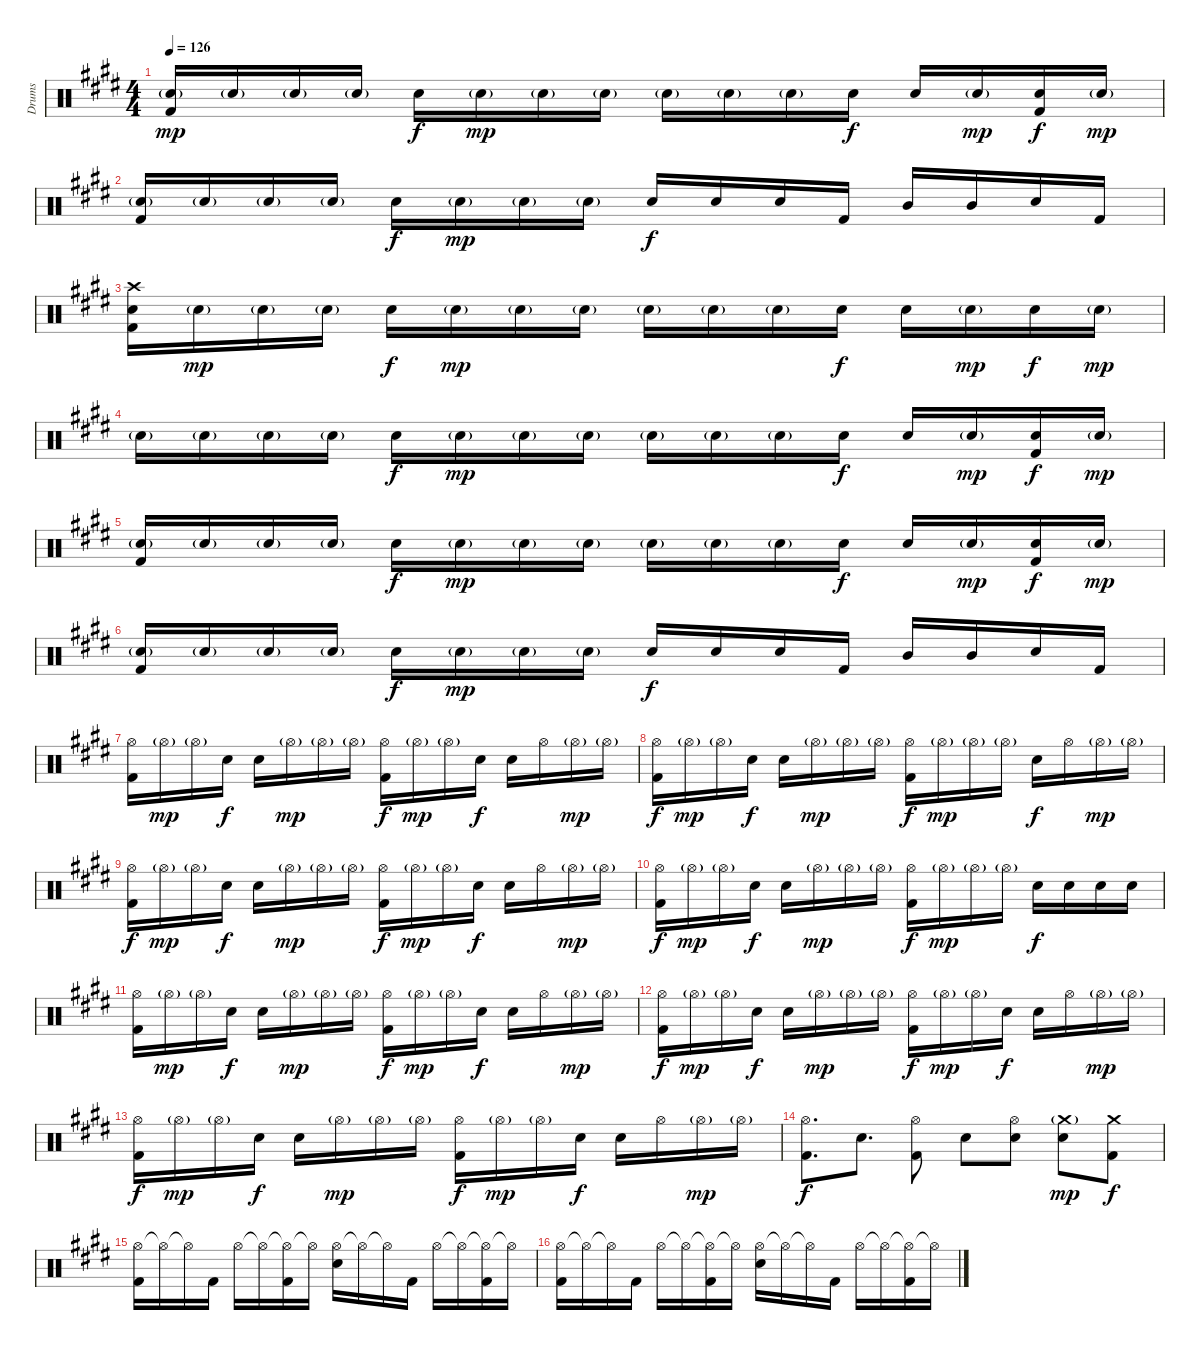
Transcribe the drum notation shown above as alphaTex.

\track ("Drums" "Drums") {instrument percussion}
\staff {score}
\articulation defaults
\ts (4 4)
\tempo 126
\clef neutral
\ks e
("Snare (hit) 2"{g} "Kick (hit) 2").16{dy mp} "Snare (hit) 2"{g}.16 "Snare (hit) 2"{g}.16 "Snare (hit) 2"{g}.16 "Snare (hit) 2".16{dy f} "Snare (hit) 2"{g}.16{dy mp} "Snare (hit) 2"{g}.16 "Snare (hit) 2"{g}.16 "Snare (hit) 2"{g}.16 "Snare (hit) 2"{g}.16 "Snare (hit) 2"{g}.16 "Snare (hit) 2".16{dy f} "Snare (hit) 2".16 "Snare (hit) 2"{g}.16{dy mp} ("Snare (hit) 2" "Kick (hit) 2").16{dy f} "Snare (hit) 2"{g}.16{dy mp} |
("Snare (hit) 2"{g} "Kick (hit) 2").16 "Snare (hit) 2"{g}.16 "Snare (hit) 2"{g}.16 "Snare (hit) 2"{g}.16 "Snare (hit) 2".16{dy f} "Snare (hit) 2"{g}.16{dy mp} "Snare (hit) 2"{g}.16 "Snare (hit) 2"{g}.16 "Snare (hit) 2".16{dy f} "Snare (hit) 2".16 "Snare (hit) 2".16 "Kick (hit) 2".16 "Mid Tom (hit)".16 "Mid Tom (hit)".16 "Snare (hit) 2".16 "Kick (hit) 2".16 |
("Crash high (hit)" "Snare (hit) 2" "Kick (hit) 2").16 "Snare (hit) 2"{g}.16{dy mp} "Snare (hit) 2"{g}.16 "Snare (hit) 2"{g}.16 "Snare (hit) 2".16{dy f} "Snare (hit) 2"{g}.16{dy mp} "Snare (hit) 2"{g}.16 "Snare (hit) 2"{g}.16 "Snare (hit) 2"{g}.16 "Snare (hit) 2"{g}.16 "Snare (hit) 2"{g}.16 "Snare (hit) 2".16{dy f} "Snare (hit) 2".16 "Snare (hit) 2"{g}.16{dy mp} "Snare (hit) 2".16{dy f} "Snare (hit) 2"{g}.16{dy mp} |
"Snare (hit) 2"{g}.16 "Snare (hit) 2"{g}.16 "Snare (hit) 2"{g}.16 "Snare (hit) 2"{g}.16 "Snare (hit) 2".16{dy f} "Snare (hit) 2"{g}.16{dy mp} "Snare (hit) 2"{g}.16 "Snare (hit) 2"{g}.16 "Snare (hit) 2"{g}.16 "Snare (hit) 2"{g}.16 "Snare (hit) 2"{g}.16 "Snare (hit) 2".16{dy f} "Snare (hit) 2".16 "Snare (hit) 2"{g}.16{dy mp} ("Snare (hit) 2" "Kick (hit) 2").16{dy f} "Snare (hit) 2"{g}.16{dy mp} |
("Snare (hit) 2"{g} "Kick (hit) 2").16 "Snare (hit) 2"{g}.16 "Snare (hit) 2"{g}.16 "Snare (hit) 2"{g}.16 "Snare (hit) 2".16{dy f} "Snare (hit) 2"{g}.16{dy mp} "Snare (hit) 2"{g}.16 "Snare (hit) 2"{g}.16 "Snare (hit) 2"{g}.16 "Snare (hit) 2"{g}.16 "Snare (hit) 2"{g}.16 "Snare (hit) 2".16{dy f} "Snare (hit) 2".16 "Snare (hit) 2"{g}.16{dy mp} ("Snare (hit) 2" "Kick (hit) 2").16{dy f} "Snare (hit) 2"{g}.16{dy mp} |
("Snare (hit) 2"{g} "Kick (hit) 2").16 "Snare (hit) 2"{g}.16 "Snare (hit) 2"{g}.16 "Snare (hit) 2"{g}.16 "Snare (hit) 2".16{dy f} "Snare (hit) 2"{g}.16{dy mp} "Snare (hit) 2"{g}.16 "Snare (hit) 2"{g}.16 "Snare (hit) 2".16{dy f} "Snare (hit) 2".16 "Snare (hit) 2".16 "Kick (hit) 2".16 "Mid Tom (hit)".16 "Mid Tom (hit)".16 "Snare (hit) 2".16 "Kick (hit) 2".16 |
("Hi-Hat (open)" "Kick (hit) 2").16 "Hi-Hat (open)"{g}.16{dy mp} "Hi-Hat (open)"{g}.16 "Snare (hit) 2".16{dy f} "Snare (hit) 2".16 "Hi-Hat (open)"{g}.16{dy mp} "Hi-Hat (open)"{g}.16 "Hi-Hat (open)"{g}.16 ("Hi-Hat (open)" "Kick (hit) 2").16{dy f} "Hi-Hat (open)"{g}.16{dy mp} "Hi-Hat (open)"{g}.16 "Snare (hit) 2".16{dy f} "Snare (hit) 2".16 "Hi-Hat (open)".16 "Hi-Hat (open)"{g}.16{dy mp} "Hi-Hat (open)"{g}.16 |
("Hi-Hat (open)" "Kick (hit) 2").16{dy f} "Hi-Hat (open)"{g}.16{dy mp} "Hi-Hat (open)"{g}.16 "Snare (hit) 2".16{dy f} "Snare (hit) 2".16 "Hi-Hat (open)"{g}.16{dy mp} "Hi-Hat (open)"{g}.16 "Hi-Hat (open)"{g}.16 ("Hi-Hat (open)" "Kick (hit) 2").16{dy f} "Hi-Hat (open)"{g}.16{dy mp} "Hi-Hat (open)"{g}.16 "Hi-Hat (open)"{g}.16 "Snare (hit) 2".16{dy f} "Hi-Hat (open)".16 "Hi-Hat (open)"{g}.16{dy mp} "Hi-Hat (open)"{g}.16 |
("Hi-Hat (open)" "Kick (hit) 2").16{dy f} "Hi-Hat (open)"{g}.16{dy mp} "Hi-Hat (open)"{g}.16 "Snare (hit) 2".16{dy f} "Snare (hit) 2".16 "Hi-Hat (open)"{g}.16{dy mp} "Hi-Hat (open)"{g}.16 "Hi-Hat (open)"{g}.16 ("Hi-Hat (open)" "Kick (hit) 2").16{dy f} "Hi-Hat (open)"{g}.16{dy mp} "Hi-Hat (open)"{g}.16 "Snare (hit) 2".16{dy f} "Snare (hit) 2".16 "Hi-Hat (open)".16 "Hi-Hat (open)"{g}.16{dy mp} "Hi-Hat (open)"{g}.16 |
("Hi-Hat (open)" "Kick (hit) 2").16{dy f} "Hi-Hat (open)"{g}.16{dy mp} "Hi-Hat (open)"{g}.16 "Snare (hit) 2".16{dy f} "Snare (hit) 2".16 "Hi-Hat (open)"{g}.16{dy mp} "Hi-Hat (open)"{g}.16 "Hi-Hat (open)"{g}.16 ("Hi-Hat (open)" "Kick (hit) 2").16{dy f} "Hi-Hat (open)"{g}.16{dy mp} "Hi-Hat (open)"{g}.16 "Hi-Hat (open)"{g}.16 "Snare (hit) 2".16{dy f} "Snare (hit) 2".16 "Snare (hit) 2".16 "Snare (hit) 2".16 |
("Hi-Hat (open)" "Kick (hit) 2").16 "Hi-Hat (open)"{g}.16{dy mp} "Hi-Hat (open)"{g}.16 "Snare (hit) 2".16{dy f} "Snare (hit) 2".16 "Hi-Hat (open)"{g}.16{dy mp} "Hi-Hat (open)"{g}.16 "Hi-Hat (open)"{g}.16 ("Hi-Hat (open)" "Kick (hit) 2").16{dy f} "Hi-Hat (open)"{g}.16{dy mp} "Hi-Hat (open)"{g}.16 "Snare (hit) 2".16{dy f} "Snare (hit) 2".16 "Hi-Hat (open)".16 "Hi-Hat (open)"{g}.16{dy mp} "Hi-Hat (open)"{g}.16 |
("Hi-Hat (open)" "Kick (hit) 2").16{dy f} "Hi-Hat (open)"{g}.16{dy mp} "Hi-Hat (open)"{g}.16 "Snare (hit) 2".16{dy f} "Snare (hit) 2".16 "Hi-Hat (open)"{g}.16{dy mp} "Hi-Hat (open)"{g}.16 "Hi-Hat (open)"{g}.16 ("Hi-Hat (open)" "Kick (hit) 2").16{dy f} "Hi-Hat (open)"{g}.16{dy mp} "Hi-Hat (open)"{g}.16 "Snare (hit) 2".16{dy f} "Snare (hit) 2".16 "Hi-Hat (open)".16 "Hi-Hat (open)"{g}.16{dy mp} "Hi-Hat (open)"{g}.16 |
("Hi-Hat (open)" "Kick (hit) 2").16{dy f} "Hi-Hat (open)"{g}.16{dy mp} "Hi-Hat (open)"{g}.16 "Snare (hit) 2".16{dy f} "Snare (hit) 2".16 "Hi-Hat (open)"{g}.16{dy mp} "Hi-Hat (open)"{g}.16 "Hi-Hat (open)"{g}.16 ("Hi-Hat (open)" "Kick (hit) 2").16{dy f} "Hi-Hat (open)"{g}.16{dy mp} "Hi-Hat (open)"{g}.16 "Snare (hit) 2".16{dy f} "Snare (hit) 2".16 "Hi-Hat (open)".16 "Hi-Hat (open)"{g}.16{dy mp} "Hi-Hat (open)"{g}.16 |
("Hi-Hat (open)" "Kick (hit) 2").8{d dy f} "Snare (hit) 2".8{d} ("Hi-Hat (open)" "Kick (hit) 2").8 "Snare (hit) 2".8 ("Hi-Hat (open)" "Snare (hit) 2").8 ("Snare (hit) 2" "Crash medium (hit)"{g}).8{dy mp} ("Kick (hit) 2" "Crash medium (hit)").8{dy f} |
("Hi-Hat (open)" "Kick (hit) 2").16 "Hi-Hat (open)"{t}.16 "Hi-Hat (open)"{t}.16 "Kick (hit) 2".16 "Hi-Hat (open)".16 "Hi-Hat (open)"{t}.16 ("Hi-Hat (open)"{t} "Kick (hit) 2").16 "Hi-Hat (open)"{t}.16 ("Hi-Hat (open)" "Snare (hit) 2").16 "Hi-Hat (open)"{t}.16 "Hi-Hat (open)"{t}.16 "Kick (hit) 2".16 "Hi-Hat (open)".16 "Hi-Hat (open)"{t}.16 ("Hi-Hat (open)"{t} "Kick (hit) 2").16 "Hi-Hat (open)"{t}.16 |
("Hi-Hat (open)" "Kick (hit) 2").16 "Hi-Hat (open)"{t}.16 "Hi-Hat (open)"{t}.16 "Kick (hit) 2".16 "Hi-Hat (open)".16 "Hi-Hat (open)"{t}.16 ("Hi-Hat (open)"{t} "Kick (hit) 2").16 "Hi-Hat (open)"{t}.16 ("Hi-Hat (open)" "Snare (hit) 2").16 "Hi-Hat (open)"{t}.16 "Hi-Hat (open)"{t}.16 "Kick (hit) 2".16 "Hi-Hat (open)".16 "Hi-Hat (open)"{t}.16 ("Hi-Hat (open)"{t} "Kick (hit) 2").16 "Hi-Hat (open)"{t}.16
